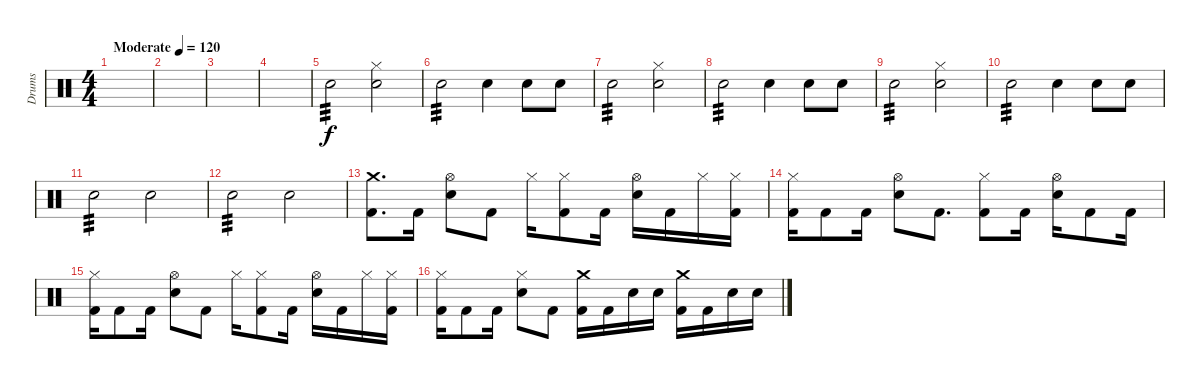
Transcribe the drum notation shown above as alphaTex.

\track ("Drums" "Drums") {instrument percussion}
\staff {score}
\articulation defaults
\ts (4 4)
\tempo (120 "Moderate")
\clef neutral
\ks c
|
|
|
|
"Snare (hit) 2".2{tp 3} ("Hi-Hat (closed)" "Snare (hit) 2").2 |
"Snare (hit) 2".2{tp 3} "Snare (hit) 2".4 "Snare (hit) 2".8 "Snare (hit) 2".8 |
"Snare (hit) 2".2{tp 3} ("Hi-Hat (closed)" "Snare (hit) 2").2 |
"Snare (hit) 2".2{tp 3} "Snare (hit) 2".4 "Snare (hit) 2".8 "Snare (hit) 2".8 |
"Snare (hit) 2".2{tp 3} ("Hi-Hat (closed)" "Snare (hit) 2").2 |
"Snare (hit) 2".2{tp 3} "Snare (hit) 2".4 "Snare (hit) 2".8 "Snare (hit) 2".8 |
"Snare (hit) 2".2{tp 3} "Snare (hit) 2".2 |
"Snare (hit) 2".2{tp 3} "Snare (hit) 2".2 |
("Crash medium (hit)" "Kick (hit) 2").8{d} "Kick (hit) 2".16 ("Hi-Hat (open)" "Snare (hit) 2").8 "Kick (hit) 2".8 "Hi-Hat (closed)".16 ("Hi-Hat (closed)" "Kick (hit) 2").8 "Kick (hit) 2".16 ("Hi-Hat (open)" "Snare (hit) 2").16 "Kick (hit) 2".16 "Hi-Hat (closed)".16 ("Hi-Hat (closed)" "Kick (hit) 2").16 |
("Hi-Hat (closed)" "Kick (hit) 2").16 "Kick (hit) 2".8 "Kick (hit) 2".16 ("Hi-Hat (open)" "Snare (hit) 2").8 "Kick (hit) 2".8{d} ("Hi-Hat (closed)" "Kick (hit) 2").8 "Kick (hit) 2".16 ("Hi-Hat (open)" "Snare (hit) 2").16 "Kick (hit) 2".8 "Kick (hit) 2".16 |
("Hi-Hat (closed)" "Kick (hit) 2").16 "Kick (hit) 2".8 "Kick (hit) 2".16 ("Hi-Hat (open)" "Snare (hit) 2").8 "Kick (hit) 2".8 "Hi-Hat (closed)".16 ("Hi-Hat (closed)" "Kick (hit) 2").8 "Kick (hit) 2".16 ("Hi-Hat (open)" "Snare (hit) 2").16 "Kick (hit) 2".16 "Hi-Hat (closed)".16 ("Hi-Hat (closed)" "Kick (hit) 2").16 |
("Hi-Hat (closed)" "Kick (hit) 2").16 "Kick (hit) 2".8 "Kick (hit) 2".16 ("Hi-Hat (closed)" "Snare (hit) 2").8 "Kick (hit) 2".8 ("Crash medium (hit)" "Kick (hit) 2").16 "Kick (hit) 2".16 "Snare (hit) 2".16 "Snare (hit) 2".16 ("Crash medium (hit)" "Kick (hit) 2").16 "Kick (hit) 2".16 "Snare (hit) 2".16 "Snare (hit) 2".16
